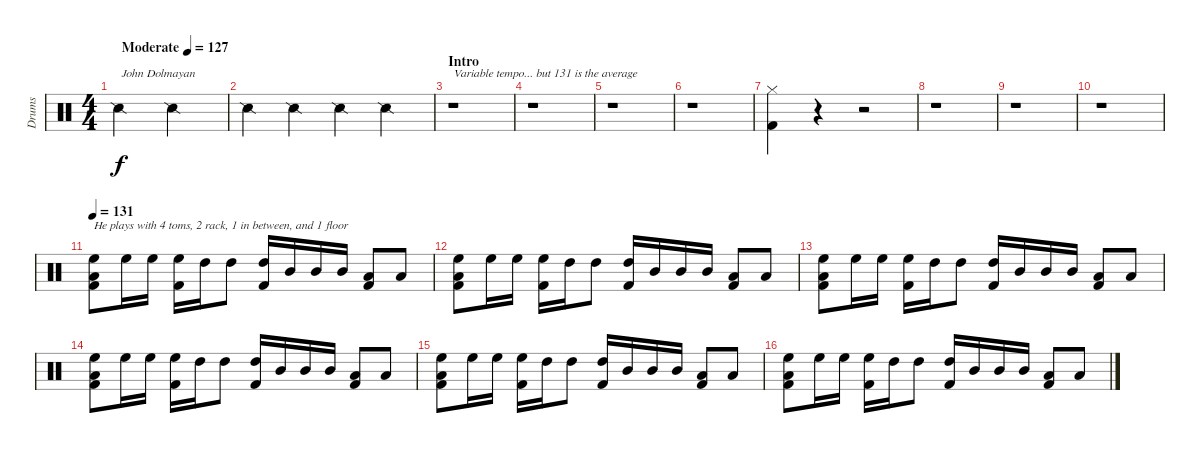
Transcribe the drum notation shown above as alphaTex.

\track ("Drums" "Drums") {instrument percussion}
\staff {score}
\articulation defaults
\ts (4 4)
\tempo (127 "Moderate")
\clef neutral
\ks c "Snare (side stick) 2".2{txt "John Dolmayan" dy f} "Snare (side stick) 2".2
|
"Snare (side stick) 2".4 "Snare (side stick) 2".4 "Snare (side stick) 2".4 "Snare (side stick) 2".4 |
\section ("" "Intro")
r.1{txt "Variable tempo... but 131 is the average"} |
r.1 |
r.1 |
r.1 |
("Hi-Hat (closed)" "Kick (hit) 2").4 r.4 r.2 |
r.1 |
r.1 |
r.1 |
\tempo 131
("High Floor Tom (hit)" "Low Tom (hit)" "Kick (hit) 2").8{txt "He plays with 4 toms, 2 rack, 1 in between, and 1 floor"} "High Floor Tom (hit)".16 "High Floor Tom (hit)".16 ("High Floor Tom (hit)" "Kick (hit) 2").16 "High Tom (hit)".16 "High Tom (hit)".8 ("High Tom (hit)" "Kick (hit) 2").16 "Mid Tom (hit)".16 "Mid Tom (hit)".16 "Mid Tom (hit)".16 ("Low Tom (hit)" "Kick (hit) 2").8 "Low Tom (hit)".8 |
("High Floor Tom (hit)" "Low Tom (hit)" "Kick (hit) 2").8 "High Floor Tom (hit)".16 "High Floor Tom (hit)".16 ("High Floor Tom (hit)" "Kick (hit) 2").16 "High Tom (hit)".16 "High Tom (hit)".8 ("High Tom (hit)" "Kick (hit) 2").16 "Mid Tom (hit)".16 "Mid Tom (hit)".16 "Mid Tom (hit)".16 ("Low Tom (hit)" "Kick (hit) 2").8 "Low Tom (hit)".8 |
("High Floor Tom (hit)" "Low Tom (hit)" "Kick (hit) 2").8 "High Floor Tom (hit)".16 "High Floor Tom (hit)".16 ("High Floor Tom (hit)" "Kick (hit) 2").16 "High Tom (hit)".16 "High Tom (hit)".8 ("High Tom (hit)" "Kick (hit) 2").16 "Mid Tom (hit)".16 "Mid Tom (hit)".16 "Mid Tom (hit)".16 ("Low Tom (hit)" "Kick (hit) 2").8 "Low Tom (hit)".8 |
("High Floor Tom (hit)" "Low Tom (hit)" "Kick (hit) 2").8 "High Floor Tom (hit)".16 "High Floor Tom (hit)".16 ("High Floor Tom (hit)" "Kick (hit) 2").16 "High Tom (hit)".16 "High Tom (hit)".8 ("High Tom (hit)" "Kick (hit) 2").16 "Mid Tom (hit)".16 "Mid Tom (hit)".16 "Mid Tom (hit)".16 ("Low Tom (hit)" "Kick (hit) 2").8 "Low Tom (hit)".8 |
("High Floor Tom (hit)" "Low Tom (hit)" "Kick (hit) 2").8 "High Floor Tom (hit)".16 "High Floor Tom (hit)".16 ("High Floor Tom (hit)" "Kick (hit) 2").16 "High Tom (hit)".16 "High Tom (hit)".8 ("High Tom (hit)" "Kick (hit) 2").16 "Mid Tom (hit)".16 "Mid Tom (hit)".16 "Mid Tom (hit)".16 ("Low Tom (hit)" "Kick (hit) 2").8 "Low Tom (hit)".8 |
("High Floor Tom (hit)" "Low Tom (hit)" "Kick (hit) 2").8 "High Floor Tom (hit)".16 "High Floor Tom (hit)".16 ("High Floor Tom (hit)" "Kick (hit) 2").16 "High Tom (hit)".16 "High Tom (hit)".8 ("High Tom (hit)" "Kick (hit) 2").16 "Mid Tom (hit)".16 "Mid Tom (hit)".16 "Mid Tom (hit)".16 ("Low Tom (hit)" "Kick (hit) 2").8 "Low Tom (hit)".8
